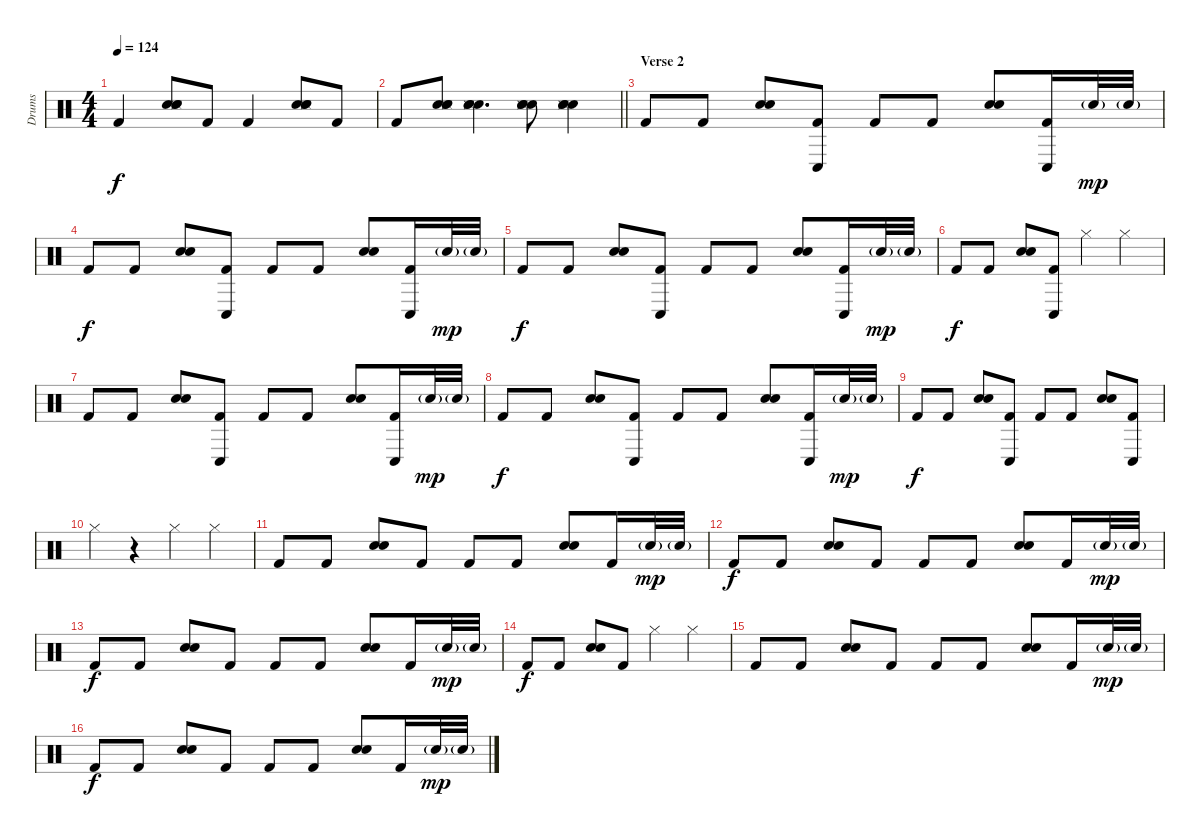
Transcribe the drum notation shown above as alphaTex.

\track ("Drums" "Drums") {instrument percussion}
\staff {score}
\articulation defaults
\ts (4 4)
\tempo 124
\clef neutral
\ks c "Kick (hit) 2".4{dy f}
("Snare (hit) 2" "Snare (side stick) 3" "Hand Clap (hit)" "Electric Snare (hit)").8 "Kick (hit) 2".8 "Kick (hit) 2".4 ("Snare (hit) 2" "Snare (side stick) 3" "Hand Clap (hit)" "Electric Snare (hit)").8 "Kick (hit) 2".8 |
\barLineRight lightlight "Kick (hit) 2".8
("Snare (hit) 2" "Snare (side stick) 3" "Hand Clap (hit)" "Electric Snare (hit)").8 ("Snare (hit) 2" "Snare (side stick) 3" "Hand Clap (hit)" "Electric Snare (hit)").4{d} ("Snare (hit) 2" "Snare (side stick) 3" "Hand Clap (hit)" "Electric Snare (hit)").8 ("Snare (hit) 2" "Snare (side stick) 3" "Hand Clap (hit)" "Electric Snare (hit)").4 |
\section ("" "Verse 2")
"Kick (hit) 2".8 "Kick (hit) 2".8 ("Snare (hit) 2" "Electric Snare (hit)").8 ("Conga low (hit)" "Kick (hit) 2").8 "Kick (hit) 2".8 "Kick (hit) 2".8 ("Snare (hit) 2" "Electric Snare (hit)").8 ("Conga low (hit)" "Kick (hit) 2").16 "Electric Snare (hit)"{g}.32{dy mp} "Electric Snare (hit)"{g}.32 |
"Kick (hit) 2".8{dy f} "Kick (hit) 2".8 ("Snare (hit) 2" "Electric Snare (hit)").8 ("Conga low (hit)" "Kick (hit) 2").8 "Kick (hit) 2".8 "Kick (hit) 2".8 ("Snare (hit) 2" "Electric Snare (hit)").8 ("Conga low (hit)" "Kick (hit) 2").16 "Electric Snare (hit)"{g}.32{dy mp} "Electric Snare (hit)"{g}.32 |
"Kick (hit) 2".8{dy f} "Kick (hit) 2".8 ("Snare (hit) 2" "Electric Snare (hit)").8 ("Conga low (hit)" "Kick (hit) 2").8 "Kick (hit) 2".8 "Kick (hit) 2".8 ("Snare (hit) 2" "Electric Snare (hit)").8 ("Conga low (hit)" "Kick (hit) 2").16 "Electric Snare (hit)"{g}.32{dy mp} "Electric Snare (hit)"{g}.32 |
"Kick (hit) 2".8{dy f} "Kick (hit) 2".8 ("Snare (hit) 2" "Electric Snare (hit)").8 ("Conga low (hit)" "Kick (hit) 2").8 "Hi-Hat (closed)".4 "Hi-Hat (closed)".4 |
"Kick (hit) 2".8 "Kick (hit) 2".8 ("Snare (hit) 2" "Electric Snare (hit)").8 ("Conga low (hit)" "Kick (hit) 2").8 "Kick (hit) 2".8 "Kick (hit) 2".8 ("Snare (hit) 2" "Electric Snare (hit)").8 ("Conga low (hit)" "Kick (hit) 2").16 "Electric Snare (hit)"{g}.32{dy mp} "Electric Snare (hit)"{g}.32 |
"Kick (hit) 2".8{dy f} "Kick (hit) 2".8 ("Snare (hit) 2" "Electric Snare (hit)").8 ("Conga low (hit)" "Kick (hit) 2").8 "Kick (hit) 2".8 "Kick (hit) 2".8 ("Snare (hit) 2" "Electric Snare (hit)").8 ("Conga low (hit)" "Kick (hit) 2").16 "Electric Snare (hit)"{g}.32{dy mp} "Electric Snare (hit)"{g}.32 |
"Kick (hit) 2".8{dy f} "Kick (hit) 2".8 ("Snare (hit) 2" "Electric Snare (hit)").8 ("Conga low (hit)" "Kick (hit) 2").8 "Kick (hit) 2".8 "Kick (hit) 2".8 ("Snare (hit) 2" "Electric Snare (hit)").8 ("Conga low (hit)" "Kick (hit) 2").8 |
"Hi-Hat (closed)".4 r.4 "Hi-Hat (closed)".4 "Hi-Hat (closed)".4 |
"Kick (hit) 2".8 "Kick (hit) 2".8 ("Snare (hit) 2" "Electric Snare (hit)").8 "Kick (hit) 2".8 "Kick (hit) 2".8 "Kick (hit) 2".8 ("Snare (hit) 2" "Electric Snare (hit)").8 "Kick (hit) 2".16 "Electric Snare (hit)"{g}.32{dy mp} "Electric Snare (hit)"{g}.32 |
"Kick (hit) 2".8{dy f} "Kick (hit) 2".8 ("Snare (hit) 2" "Electric Snare (hit)").8 "Kick (hit) 2".8 "Kick (hit) 2".8 "Kick (hit) 2".8 ("Snare (hit) 2" "Electric Snare (hit)").8 "Kick (hit) 2".16 "Electric Snare (hit)"{g}.32{dy mp} "Electric Snare (hit)"{g}.32 |
"Kick (hit) 2".8{dy f} "Kick (hit) 2".8 ("Snare (hit) 2" "Electric Snare (hit)").8 "Kick (hit) 2".8 "Kick (hit) 2".8 "Kick (hit) 2".8 ("Snare (hit) 2" "Electric Snare (hit)").8 "Kick (hit) 2".16 "Electric Snare (hit)"{g}.32{dy mp} "Electric Snare (hit)"{g}.32 |
"Kick (hit) 2".8{dy f} "Kick (hit) 2".8 ("Snare (hit) 2" "Electric Snare (hit)").8 "Kick (hit) 2".8 "Hi-Hat (closed)".4 "Hi-Hat (closed)".4 |
"Kick (hit) 2".8 "Kick (hit) 2".8 ("Snare (hit) 2" "Electric Snare (hit)").8 "Kick (hit) 2".8 "Kick (hit) 2".8 "Kick (hit) 2".8 ("Snare (hit) 2" "Electric Snare (hit)").8 "Kick (hit) 2".16 "Electric Snare (hit)"{g}.32{dy mp} "Electric Snare (hit)"{g}.32 |
"Kick (hit) 2".8{dy f} "Kick (hit) 2".8 ("Snare (hit) 2" "Electric Snare (hit)").8 "Kick (hit) 2".8 "Kick (hit) 2".8 "Kick (hit) 2".8 ("Snare (hit) 2" "Electric Snare (hit)").8 "Kick (hit) 2".16 "Electric Snare (hit)"{g}.32{dy mp} "Electric Snare (hit)"{g}.32
